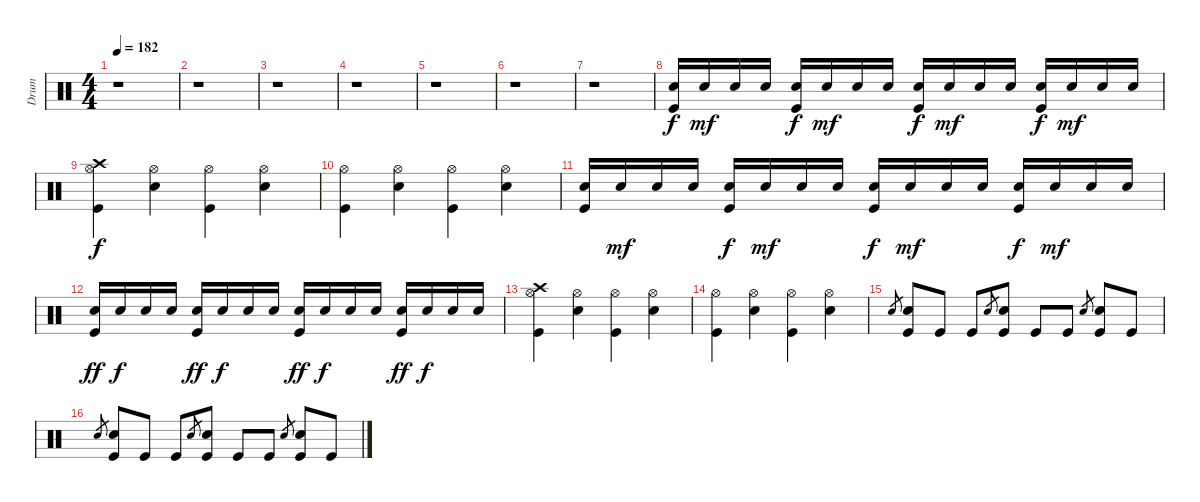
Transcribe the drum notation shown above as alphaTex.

\track ("Drum" "Drum") {instrument percussion}
\staff {score}
\articulation defaults
\ts (4 4)
\tempo 182
\clef neutral
\ks c
r.1{dy f} |
r.1 |
r.1 |
r.1 |
r.1 |
r.1 |
r.1 |
("Snare (hit) 2" "Kick (hit)").16 "Snare (hit) 2".16{dy mf} "Snare (hit) 2".16 "Snare (hit) 2".16 ("Snare (hit) 2" "Kick (hit)").16{dy f} "Snare (hit) 2".16{dy mf} "Snare (hit) 2".16 "Snare (hit) 2".16 ("Snare (hit) 2" "Kick (hit)").16{dy f} "Snare (hit) 2".16{dy mf} "Snare (hit) 2".16 "Snare (hit) 2".16 ("Snare (hit) 2" "Kick (hit)").16{dy f} "Snare (hit) 2".16{dy mf} "Snare (hit) 2".16 "Snare (hit) 2".16 |
("Crash high (hit)" "Hi-Hat (open)" "Kick (hit)").4{dy f} ("Snare (hit) 2" "Hi-Hat (open)").4 ("Hi-Hat (open)" "Kick (hit)").4 ("Snare (hit) 2" "Hi-Hat (open)").4 |
("Hi-Hat (open)" "Kick (hit)").4 ("Snare (hit) 2" "Hi-Hat (open)").4 ("Hi-Hat (open)" "Kick (hit)").4 ("Snare (hit) 2" "Hi-Hat (open)").4 |
("Snare (hit) 2" "Kick (hit)").16 "Snare (hit) 2".16{dy mf} "Snare (hit) 2".16 "Snare (hit) 2".16 ("Snare (hit) 2" "Kick (hit)").16{dy f} "Snare (hit) 2".16{dy mf} "Snare (hit) 2".16 "Snare (hit) 2".16 ("Snare (hit) 2" "Kick (hit)").16{dy f} "Snare (hit) 2".16{dy mf} "Snare (hit) 2".16 "Snare (hit) 2".16 ("Snare (hit) 2" "Kick (hit)").16{dy f} "Snare (hit) 2".16{dy mf} "Snare (hit) 2".16 "Snare (hit) 2".16 |
("Snare (hit) 2" "Kick (hit)").16{dy ff} "Snare (hit) 2".16{dy f} "Snare (hit) 2".16 "Snare (hit) 2".16 ("Snare (hit) 2" "Kick (hit)").16{dy ff} "Snare (hit) 2".16{dy f} "Snare (hit) 2".16 "Snare (hit) 2".16 ("Snare (hit) 2" "Kick (hit)").16{dy ff} "Snare (hit) 2".16{dy f} "Snare (hit) 2".16 "Snare (hit) 2".16 ("Snare (hit) 2" "Kick (hit)").16{dy ff} "Snare (hit) 2".16{dy f} "Snare (hit) 2".16 "Snare (hit) 2".16 |
("Crash high (hit)" "Hi-Hat (open)" "Kick (hit)").4 ("Snare (hit) 2" "Hi-Hat (open)").4 ("Hi-Hat (open)" "Kick (hit)").4 ("Snare (hit) 2" "Hi-Hat (open)").4 |
("Hi-Hat (open)" "Kick (hit)").4 ("Snare (hit) 2" "Hi-Hat (open)").4 ("Hi-Hat (open)" "Kick (hit)").4 ("Snare (hit) 2" "Hi-Hat (open)").4 |
"Snare (hit) 2".8{gr} ("Snare (hit) 2" "Kick (hit)").8 "Kick (hit)".8 "Kick (hit)".8 "Snare (hit) 2".8{gr} ("Snare (hit) 2" "Kick (hit)").8 "Kick (hit)".8 "Kick (hit)".8 "Snare (hit) 2".8{gr} ("Snare (hit) 2" "Kick (hit)").8 "Kick (hit)".8 |
"Snare (hit) 2".8{gr} ("Snare (hit) 2" "Kick (hit)").8 "Kick (hit)".8 "Kick (hit)".8 "Snare (hit) 2".8{gr} ("Snare (hit) 2" "Kick (hit)").8 "Kick (hit)".8 "Kick (hit)".8 "Snare (hit) 2".8{gr} ("Snare (hit) 2" "Kick (hit)").8 "Kick (hit)".8
